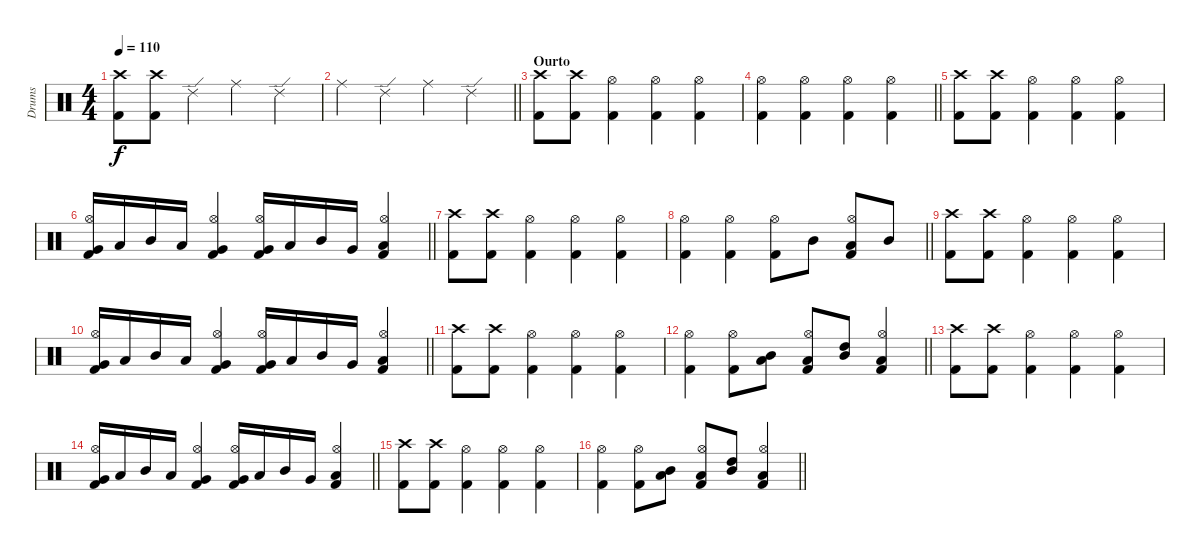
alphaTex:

\track ("Drums" "Drums") {instrument percussion}
\staff {score}
\articulation defaults
\ts (4 4)
\tempo 110
\clef neutral
\ks c
("Crash high (hit)" "Kick (hit) 2").8{dy f} ("Crash high (hit)" "Kick (hit) 2").8 "Ride (edge) 2".4 "Ride (middle)".4 "Ride (edge) 2".4 |
\barLineRight lightlight "Ride (middle)".4 "Ride (edge) 2".4 "Ride (middle)".4 "Ride (edge) 2".4
|
\section ("" "Ourto")
("Crash high (hit)" "Kick (hit) 2").8 ("Crash high (hit)" "Kick (hit) 2").8 ("Hi-Hat (open)" "Kick (hit) 2").4 ("Hi-Hat (open)" "Kick (hit) 2").4 ("Hi-Hat (open)" "Kick (hit) 2").4 |
\barLineRight lightlight
("Hi-Hat (open)" "Kick (hit) 2").4 ("Hi-Hat (open)" "Kick (hit) 2").4 ("Hi-Hat (open)" "Kick (hit) 2").4 ("Hi-Hat (open)" "Kick (hit) 2").4 |
("Crash high (hit)" "Kick (hit) 2").8 ("Crash high (hit)" "Kick (hit) 2").8 ("Hi-Hat (open)" "Kick (hit) 2").4 ("Hi-Hat (open)" "Kick (hit) 2").4 ("Hi-Hat (open)" "Kick (hit) 2").4 |
\barLineRight lightlight
("Hi-Hat (open)" "Very Low Tom (hit)" "Kick (hit) 2").16 "Low Tom (hit)".16 "Mid Tom (hit)".16 "Low Tom (hit)".16 ("Hi-Hat (open)" "Very Low Tom (hit)" "Kick (hit) 2").4 ("Hi-Hat (open)" "Very Low Tom (hit)" "Kick (hit) 2").16 "Low Tom (hit)".16 "Mid Tom (hit)".16 "Very Low Tom (hit)".16 ("Hi-Hat (open)" "Low Floor Tom (hit)" "Kick (hit) 2").4 |
\section ("" "")
("Crash high (hit)" "Kick (hit) 2").8 ("Crash high (hit)" "Kick (hit) 2").8 ("Hi-Hat (open)" "Kick (hit) 2").4 ("Hi-Hat (open)" "Kick (hit) 2").4 ("Hi-Hat (open)" "Kick (hit) 2").4 |
\barLineRight lightlight
("Hi-Hat (open)" "Kick (hit) 2").4 ("Hi-Hat (open)" "Kick (hit) 2").4 ("Hi-Hat (open)" "Kick (hit) 2").8 "Mid Tom (hit)".8 ("Hi-Hat (open)" "Low Tom (hit)" "Kick (hit) 2").8 "Mid Tom (hit)".8 |
("Crash high (hit)" "Kick (hit) 2").8 ("Crash high (hit)" "Kick (hit) 2").8 ("Hi-Hat (open)" "Kick (hit) 2").4 ("Hi-Hat (open)" "Kick (hit) 2").4 ("Hi-Hat (open)" "Kick (hit) 2").4 |
\barLineRight lightlight
("Hi-Hat (open)" "Very Low Tom (hit)" "Kick (hit) 2").16 "Low Tom (hit)".16 "Mid Tom (hit)".16 "Low Tom (hit)".16 ("Hi-Hat (open)" "Very Low Tom (hit)" "Kick (hit) 2").4 ("Hi-Hat (open)" "Very Low Tom (hit)" "Kick (hit) 2").16 "Low Tom (hit)".16 "Mid Tom (hit)".16 "Very Low Tom (hit)".16 ("Hi-Hat (open)" "Low Floor Tom (hit)" "Kick (hit) 2").4 |
\section ("" "")
("Crash high (hit)" "Kick (hit) 2").8 ("Crash high (hit)" "Kick (hit) 2").8 ("Hi-Hat (open)" "Kick (hit) 2").4 ("Hi-Hat (open)" "Kick (hit) 2").4 ("Hi-Hat (open)" "Kick (hit) 2").4 |
\barLineRight lightlight
("Hi-Hat (open)" "Kick (hit) 2").4 ("Hi-Hat (open)" "Kick (hit) 2").8 ("Low Tom (hit)" "Mid Tom (hit)").8{bd 60} ("Hi-Hat (open)" "Low Tom (hit)" "Kick (hit) 2").8 ("High Tom (hit)" "Mid Tom (hit)").8{bd 60} ("Hi-Hat (open)" "Low Tom (hit)" "Kick (hit) 2").4 |
("Crash high (hit)" "Kick (hit) 2").8 ("Crash high (hit)" "Kick (hit) 2").8 ("Hi-Hat (open)" "Kick (hit) 2").4 ("Hi-Hat (open)" "Kick (hit) 2").4 ("Hi-Hat (open)" "Kick (hit) 2").4 |
\barLineRight lightlight
("Hi-Hat (open)" "Very Low Tom (hit)" "Kick (hit) 2").16 "Low Tom (hit)".16 "Mid Tom (hit)".16 "Low Tom (hit)".16 ("Hi-Hat (open)" "Very Low Tom (hit)" "Kick (hit) 2").4 ("Hi-Hat (open)" "Very Low Tom (hit)" "Kick (hit) 2").16 "Low Tom (hit)".16 "Mid Tom (hit)".16 "Very Low Tom (hit)".16 ("Hi-Hat (open)" "Low Floor Tom (hit)" "Kick (hit) 2").4 |
\section ("" "")
("Crash high (hit)" "Kick (hit) 2").8 ("Crash high (hit)" "Kick (hit) 2").8 ("Hi-Hat (open)" "Kick (hit) 2").4 ("Hi-Hat (open)" "Kick (hit) 2").4 ("Hi-Hat (open)" "Kick (hit) 2").4 |
\barLineRight lightlight
("Hi-Hat (open)" "Kick (hit) 2").4 ("Hi-Hat (open)" "Kick (hit) 2").8 ("Low Tom (hit)" "Mid Tom (hit)").8{bd 60} ("Hi-Hat (open)" "Low Tom (hit)" "Kick (hit) 2").8 ("High Tom (hit)" "Mid Tom (hit)").8{bd 60} ("Hi-Hat (open)" "Low Tom (hit)" "Kick (hit) 2").4
